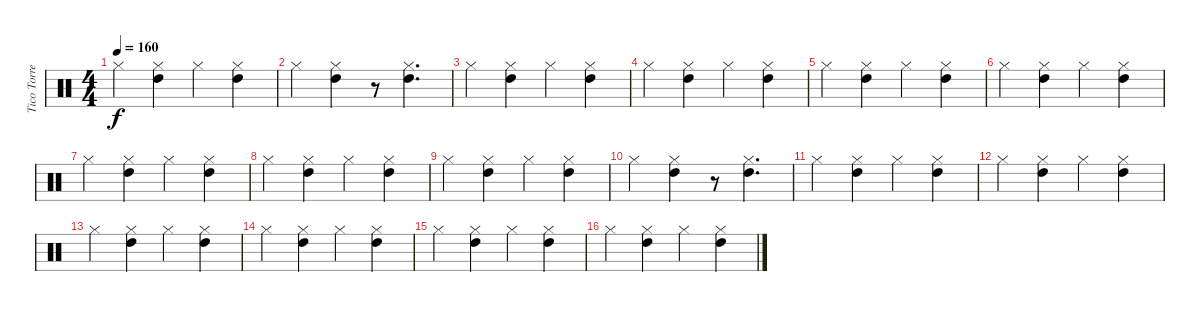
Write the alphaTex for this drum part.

\track ("Tico Torres" "Tico Torre") {instrument percussion}
\staff {score}
\articulation defaults
\ts (4 4)
\tempo 160
\clef neutral
\ks c "Hi-Hat (closed)".4{dy f}
("Hi-Hat (closed)" "High Tom (hit)").4 "Hi-Hat (closed)".4 ("Hi-Hat (closed)" "High Tom (hit)").4 |
"Hi-Hat (closed)".4 ("Hi-Hat (closed)" "High Tom (hit)").4 r.8 ("Hi-Hat (closed)" "High Tom (hit)").4{d} |
"Hi-Hat (closed)".4 ("Hi-Hat (closed)" "High Tom (hit)").4 "Hi-Hat (closed)".4 ("Hi-Hat (closed)" "High Tom (hit)").4 |
"Hi-Hat (closed)".4 ("Hi-Hat (closed)" "High Tom (hit)").4 "Hi-Hat (closed)".4 ("Hi-Hat (closed)" "High Tom (hit)").4 |
"Hi-Hat (closed)".4 ("Hi-Hat (closed)" "High Tom (hit)").4 "Hi-Hat (closed)".4 ("Hi-Hat (closed)" "High Tom (hit)").4 |
"Hi-Hat (closed)".4 ("Hi-Hat (closed)" "High Tom (hit)").4 "Hi-Hat (closed)".4 ("Hi-Hat (closed)" "High Tom (hit)").4 |
"Hi-Hat (closed)".4 ("Hi-Hat (closed)" "High Tom (hit)").4 "Hi-Hat (closed)".4 ("Hi-Hat (closed)" "High Tom (hit)").4 |
"Hi-Hat (closed)".4 ("Hi-Hat (closed)" "High Tom (hit)").4 "Hi-Hat (closed)".4 ("Hi-Hat (closed)" "High Tom (hit)").4 |
"Hi-Hat (closed)".4 ("Hi-Hat (closed)" "High Tom (hit)").4 "Hi-Hat (closed)".4 ("Hi-Hat (closed)" "High Tom (hit)").4 |
"Hi-Hat (closed)".4 ("Hi-Hat (closed)" "High Tom (hit)").4 r.8 ("Hi-Hat (closed)" "High Tom (hit)").4{d} |
"Hi-Hat (closed)".4 ("Hi-Hat (closed)" "High Tom (hit)").4 "Hi-Hat (closed)".4 ("Hi-Hat (closed)" "High Tom (hit)").4 |
"Hi-Hat (closed)".4 ("Hi-Hat (closed)" "High Tom (hit)").4 "Hi-Hat (closed)".4 ("Hi-Hat (closed)" "High Tom (hit)").4 |
"Hi-Hat (closed)".4 ("Hi-Hat (closed)" "High Tom (hit)").4 "Hi-Hat (closed)".4 ("Hi-Hat (closed)" "High Tom (hit)").4 |
"Hi-Hat (closed)".4 ("Hi-Hat (closed)" "High Tom (hit)").4 "Hi-Hat (closed)".4 ("Hi-Hat (closed)" "High Tom (hit)").4 |
"Hi-Hat (closed)".4 ("Hi-Hat (closed)" "High Tom (hit)").4 "Hi-Hat (closed)".4 ("Hi-Hat (closed)" "High Tom (hit)").4 |
"Hi-Hat (closed)".4 ("Hi-Hat (closed)" "High Tom (hit)").4 "Hi-Hat (closed)".4 ("Hi-Hat (closed)" "High Tom (hit)").4
